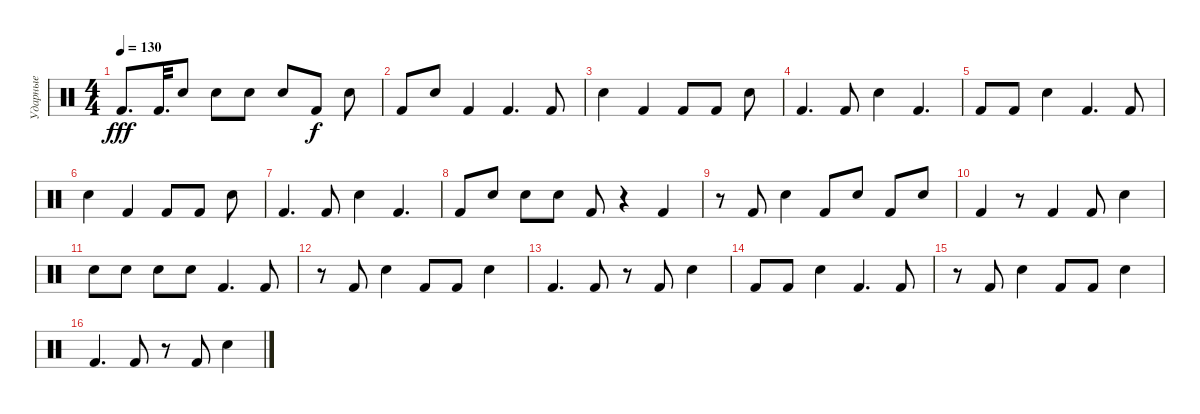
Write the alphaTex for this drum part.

\track ("Ударные" "Ударные") {instrument percussion}
\staff {score}
\articulation defaults
\ts (4 4)
\tempo 130
\clef neutral
\ks c "Kick (hit) 2".8{d dy fff} "Kick (hit) 2".32{d} "Electric Snare (hit)".8 "Electric Snare (hit)".8 "Electric Snare (hit)".8 "Electric Snare (hit)".8 "Kick (hit) 2".8{dy f} "Electric Snare (hit)".8
|
"Kick (hit) 2".8 "Electric Snare (hit)".8 "Kick (hit) 2".4 "Kick (hit) 2".4{d} "Kick (hit) 2".8 |
"Electric Snare (hit)".4 "Kick (hit) 2".4 "Kick (hit) 2".8 "Kick (hit) 2".8 "Electric Snare (hit)".8 |
"Kick (hit) 2".4{d} "Kick (hit) 2".8 "Electric Snare (hit)".4 "Kick (hit) 2".4{d} |
"Kick (hit) 2".8 "Kick (hit) 2".8 "Electric Snare (hit)".4 "Kick (hit) 2".4{d} "Kick (hit) 2".8 |
"Electric Snare (hit)".4 "Kick (hit) 2".4 "Kick (hit) 2".8 "Kick (hit) 2".8 "Electric Snare (hit)".8 |
"Kick (hit) 2".4{d} "Kick (hit) 2".8 "Electric Snare (hit)".4 "Kick (hit) 2".4{d} |
"Kick (hit) 2".8 "Electric Snare (hit)".8 "Electric Snare (hit)".8 "Electric Snare (hit)".8 "Kick (hit) 2".8 r.4 "Kick (hit) 2".4 |
r.8 "Kick (hit) 2".8 "Electric Snare (hit)".4 "Kick (hit) 2".8 "Electric Snare (hit)".8 "Kick (hit) 2".8 "Electric Snare (hit)".8 |
"Kick (hit) 2".4 r.8 "Kick (hit) 2".4 "Kick (hit) 2".8 "Electric Snare (hit)".4 |
"Electric Snare (hit)".8 "Electric Snare (hit)".8 "Electric Snare (hit)".8 "Electric Snare (hit)".8 "Kick (hit) 2".4{d} "Kick (hit) 2".8 |
r.8 "Kick (hit) 2".8 "Electric Snare (hit)".4 "Kick (hit) 2".8 "Kick (hit) 2".8 "Electric Snare (hit)".4 |
"Kick (hit) 2".4{d} "Kick (hit) 2".8 r.8 "Kick (hit) 2".8 "Electric Snare (hit)".4 |
"Kick (hit) 2".8 "Kick (hit) 2".8 "Electric Snare (hit)".4 "Kick (hit) 2".4{d} "Kick (hit) 2".8 |
r.8 "Kick (hit) 2".8 "Electric Snare (hit)".4 "Kick (hit) 2".8 "Kick (hit) 2".8 "Electric Snare (hit)".4 |
"Kick (hit) 2".4{d} "Kick (hit) 2".8 r.8 "Kick (hit) 2".8 "Electric Snare (hit)".4
